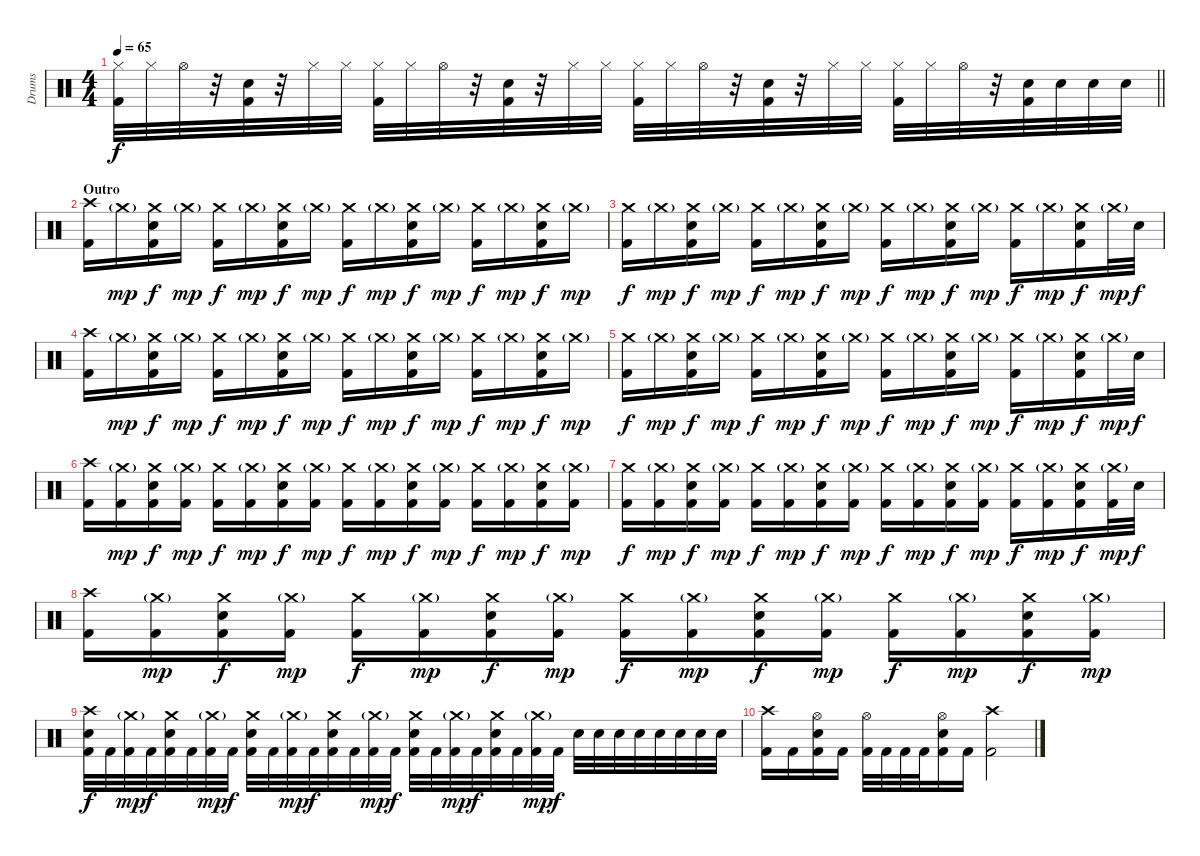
\track ("Drums" "Drums") {instrument percussion}
\staff {score}
\articulation defaults
\ts (4 4)
\tempo 65
\clef neutral
\barLineRight lightlight
\ks c
("Hi-Hat (closed)" "Kick (hit) 2").32{dy f} "Hi-Hat (closed)".32 "Hi-Hat (open)".32 r.32 ("Snare (hit) 2" "Kick (hit) 2").32 r.32 "Hi-Hat (closed)".32 "Hi-Hat (closed)".32 ("Hi-Hat (closed)" "Kick (hit) 2").32 "Hi-Hat (closed)".32 "Hi-Hat (open)".32 r.32 ("Snare (hit) 2" "Kick (hit) 2").32 r.32 "Hi-Hat (closed)".32 "Hi-Hat (closed)".32 ("Hi-Hat (closed)" "Kick (hit) 2").32 "Hi-Hat (closed)".32 "Hi-Hat (open)".32 r.32 ("Snare (hit) 2" "Kick (hit) 2").32 r.32 "Hi-Hat (closed)".32 "Hi-Hat (closed)".32 ("Hi-Hat (closed)" "Kick (hit) 2").32 "Hi-Hat (closed)".32 "Hi-Hat (open)".32 r.32 ("Snare (hit) 2" "Kick (hit) 2").32 "Snare (hit) 2".32 "Snare (hit) 2".32 "Snare (hit) 2".32 |
\section ("" "Outro")
("Crash high (hit)" "Kick (hit) 2").16 "Crash medium (hit)"{g}.16{dy mp} ("Crash medium (hit)" "Snare (hit) 2" "Kick (hit) 2").16{dy f} "Crash medium (hit)"{g}.16{dy mp} ("Crash medium (hit)" "Kick (hit) 2").16{dy f} "Crash medium (hit)"{g}.16{dy mp} ("Crash medium (hit)" "Snare (hit) 2" "Kick (hit) 2").16{dy f} "Crash medium (hit)"{g}.16{dy mp} ("Crash medium (hit)" "Kick (hit) 2").16{dy f} "Crash medium (hit)"{g}.16{dy mp} ("Crash medium (hit)" "Snare (hit) 2" "Kick (hit) 2").16{dy f} "Crash medium (hit)"{g}.16{dy mp} ("Crash medium (hit)" "Kick (hit) 2").16{dy f} "Crash medium (hit)"{g}.16{dy mp} ("Crash medium (hit)" "Snare (hit) 2" "Kick (hit) 2").16{dy f} "Crash medium (hit)"{g}.16{dy mp} |
("Crash medium (hit)" "Kick (hit) 2").16{dy f} "Crash medium (hit)"{g}.16{dy mp} ("Crash medium (hit)" "Snare (hit) 2" "Kick (hit) 2").16{dy f} "Crash medium (hit)"{g}.16{dy mp} ("Crash medium (hit)" "Kick (hit) 2").16{dy f} "Crash medium (hit)"{g}.16{dy mp} ("Crash medium (hit)" "Snare (hit) 2" "Kick (hit) 2").16{dy f} "Crash medium (hit)"{g}.16{dy mp} ("Crash medium (hit)" "Kick (hit) 2").16{dy f} "Crash medium (hit)"{g}.16{dy mp} ("Crash medium (hit)" "Snare (hit) 2" "Kick (hit) 2").16{dy f} "Crash medium (hit)"{g}.16{dy mp} ("Crash medium (hit)" "Kick (hit) 2").16{dy f} "Crash medium (hit)"{g}.16{dy mp} ("Crash medium (hit)" "Snare (hit) 2" "Kick (hit) 2").16{dy f} "Crash medium (hit)"{g}.32{dy mp} "Snare (hit) 2".32{dy f} |
("Crash high (hit)" "Kick (hit) 2").16 "Crash medium (hit)"{g}.16{dy mp} ("Crash medium (hit)" "Snare (hit) 2" "Kick (hit) 2").16{dy f} "Crash medium (hit)"{g}.16{dy mp} ("Crash medium (hit)" "Kick (hit) 2").16{dy f} "Crash medium (hit)"{g}.16{dy mp} ("Crash medium (hit)" "Snare (hit) 2" "Kick (hit) 2").16{dy f} "Crash medium (hit)"{g}.16{dy mp} ("Crash medium (hit)" "Kick (hit) 2").16{dy f} "Crash medium (hit)"{g}.16{dy mp} ("Crash medium (hit)" "Snare (hit) 2" "Kick (hit) 2").16{dy f} "Crash medium (hit)"{g}.16{dy mp} ("Crash medium (hit)" "Kick (hit) 2").16{dy f} "Crash medium (hit)"{g}.16{dy mp} ("Crash medium (hit)" "Snare (hit) 2" "Kick (hit) 2").16{dy f} "Crash medium (hit)"{g}.16{dy mp} |
("Crash medium (hit)" "Kick (hit) 2").16{dy f} "Crash medium (hit)"{g}.16{dy mp} ("Crash medium (hit)" "Snare (hit) 2" "Kick (hit) 2").16{dy f} "Crash medium (hit)"{g}.16{dy mp} ("Crash medium (hit)" "Kick (hit) 2").16{dy f} "Crash medium (hit)"{g}.16{dy mp} ("Crash medium (hit)" "Snare (hit) 2" "Kick (hit) 2").16{dy f} "Crash medium (hit)"{g}.16{dy mp} ("Crash medium (hit)" "Kick (hit) 2").16{dy f} "Crash medium (hit)"{g}.16{dy mp} ("Crash medium (hit)" "Snare (hit) 2" "Kick (hit) 2").16{dy f} "Crash medium (hit)"{g}.16{dy mp} ("Crash medium (hit)" "Kick (hit) 2").16{dy f} "Crash medium (hit)"{g}.16{dy mp} ("Crash medium (hit)" "Snare (hit) 2" "Kick (hit) 2").16{dy f} "Crash medium (hit)"{g}.32{dy mp} "Snare (hit) 2".32{dy f} |
("Crash high (hit)" "Kick (hit) 2").16 ("Crash medium (hit)"{g} "Kick (hit) 2").16{dy mp} ("Crash medium (hit)" "Snare (hit) 2" "Kick (hit) 2").16{dy f} ("Crash medium (hit)"{g} "Kick (hit) 2").16{dy mp} ("Crash medium (hit)" "Kick (hit) 2").16{dy f} ("Crash medium (hit)"{g} "Kick (hit) 2").16{dy mp} ("Crash medium (hit)" "Snare (hit) 2" "Kick (hit) 2").16{dy f} ("Crash medium (hit)"{g} "Kick (hit) 2").16{dy mp} ("Crash medium (hit)" "Kick (hit) 2").16{dy f} ("Crash medium (hit)"{g} "Kick (hit) 2").16{dy mp} ("Crash medium (hit)" "Snare (hit) 2" "Kick (hit) 2").16{dy f} ("Crash medium (hit)"{g} "Kick (hit) 2").16{dy mp} ("Crash medium (hit)" "Kick (hit) 2").16{dy f} ("Crash medium (hit)"{g} "Kick (hit) 2").16{dy mp} ("Crash medium (hit)" "Snare (hit) 2" "Kick (hit) 2").16{dy f} ("Crash medium (hit)"{g} "Kick (hit) 2").16{dy mp} |
("Crash medium (hit)" "Kick (hit) 2").16{dy f} ("Crash medium (hit)"{g} "Kick (hit) 2").16{dy mp} ("Crash medium (hit)" "Snare (hit) 2" "Kick (hit) 2").16{dy f} ("Crash medium (hit)"{g} "Kick (hit) 2").16{dy mp} ("Crash medium (hit)" "Kick (hit) 2").16{dy f} ("Crash medium (hit)"{g} "Kick (hit) 2").16{dy mp} ("Crash medium (hit)" "Snare (hit) 2" "Kick (hit) 2").16{dy f} ("Crash medium (hit)"{g} "Kick (hit) 2").16{dy mp} ("Crash medium (hit)" "Kick (hit) 2").16{dy f} ("Crash medium (hit)"{g} "Kick (hit) 2").16{dy mp} ("Crash medium (hit)" "Snare (hit) 2" "Kick (hit) 2").16{dy f} ("Crash medium (hit)"{g} "Kick (hit) 2").16{dy mp} ("Crash medium (hit)" "Kick (hit) 2").16{dy f} ("Crash medium (hit)"{g} "Kick (hit) 2").16{dy mp} ("Crash medium (hit)" "Snare (hit) 2" "Kick (hit) 2").16{dy f} ("Crash medium (hit)"{g} "Kick (hit) 2").32{dy mp} "Snare (hit) 2".32{dy f} |
("Crash high (hit)" "Kick (hit) 2").16 ("Crash medium (hit)"{g} "Kick (hit) 2").16{dy mp} ("Crash medium (hit)" "Snare (hit) 2" "Kick (hit) 2").16{dy f} ("Crash medium (hit)"{g} "Kick (hit) 2").16{dy mp} ("Crash medium (hit)" "Kick (hit) 2").16{dy f} ("Crash medium (hit)"{g} "Kick (hit) 2").16{dy mp} ("Crash medium (hit)" "Snare (hit) 2" "Kick (hit) 2").16{dy f} ("Crash medium (hit)"{g} "Kick (hit) 2").16{dy mp} ("Crash medium (hit)" "Kick (hit) 2").16{dy f} ("Crash medium (hit)"{g} "Kick (hit) 2").16{dy mp} ("Crash medium (hit)" "Snare (hit) 2" "Kick (hit) 2").16{dy f} ("Crash medium (hit)"{g} "Kick (hit) 2").16{dy mp} ("Crash medium (hit)" "Kick (hit) 2").16{dy f} ("Crash medium (hit)"{g} "Kick (hit) 2").16{dy mp} ("Crash medium (hit)" "Snare (hit) 2" "Kick (hit) 2").16{dy f} ("Crash medium (hit)"{g} "Kick (hit) 2").16{dy mp} |
("Crash high (hit)" "Snare (hit) 2" "Kick (hit) 2").32{dy f} "Kick (hit) 2".32 ("Crash medium (hit)"{g} "Kick (hit) 2").32{dy mp} "Kick (hit) 2".32{dy f} ("Crash medium (hit)" "Snare (hit) 2" "Kick (hit) 2").32 "Kick (hit) 2".32 ("Crash medium (hit)"{g} "Kick (hit) 2").32{dy mp} "Kick (hit) 2".32{dy f} ("Crash medium (hit)" "Snare (hit) 2" "Kick (hit) 2").32 "Kick (hit) 2".32 ("Crash medium (hit)"{g} "Kick (hit) 2").32{dy mp} "Kick (hit) 2".32{dy f} ("Crash medium (hit)" "Snare (hit) 2" "Kick (hit) 2").32 "Kick (hit) 2".32 ("Crash medium (hit)"{g} "Kick (hit) 2").32{dy mp} "Kick (hit) 2".32{dy f} ("Crash medium (hit)" "Snare (hit) 2" "Kick (hit) 2").32 "Kick (hit) 2".32 ("Crash medium (hit)"{g} "Kick (hit) 2").32{dy mp} "Kick (hit) 2".32{dy f} ("Crash medium (hit)" "Snare (hit) 2" "Kick (hit) 2").32 "Kick (hit) 2".32 ("Crash medium (hit)"{g} "Kick (hit) 2").32{dy mp} "Kick (hit) 2".32{dy f} "Snare (hit) 2".32 "Snare (hit) 2".32 "Snare (hit) 2".32 "Snare (hit) 2".32 "Snare (hit) 2".32 "Snare (hit) 2".32 "Snare (hit) 2".32 "Snare (hit) 2".32 |
("Crash high (hit)" "Kick (hit) 2").16 "Kick (hit) 2".16 ("Hi-Hat (open)" "Snare (hit) 2" "Kick (hit) 2").16 "Kick (hit) 2".16 ("Hi-Hat (open)" "Kick (hit) 2").32 "Kick (hit) 2".32 "Kick (hit) 2".32 "Kick (hit) 2".32 ("Hi-Hat (open)" "Snare (hit) 2" "Kick (hit) 2").16 "Kick (hit) 2".16 ("Crash high (hit)" "Kick (hit) 2").2
